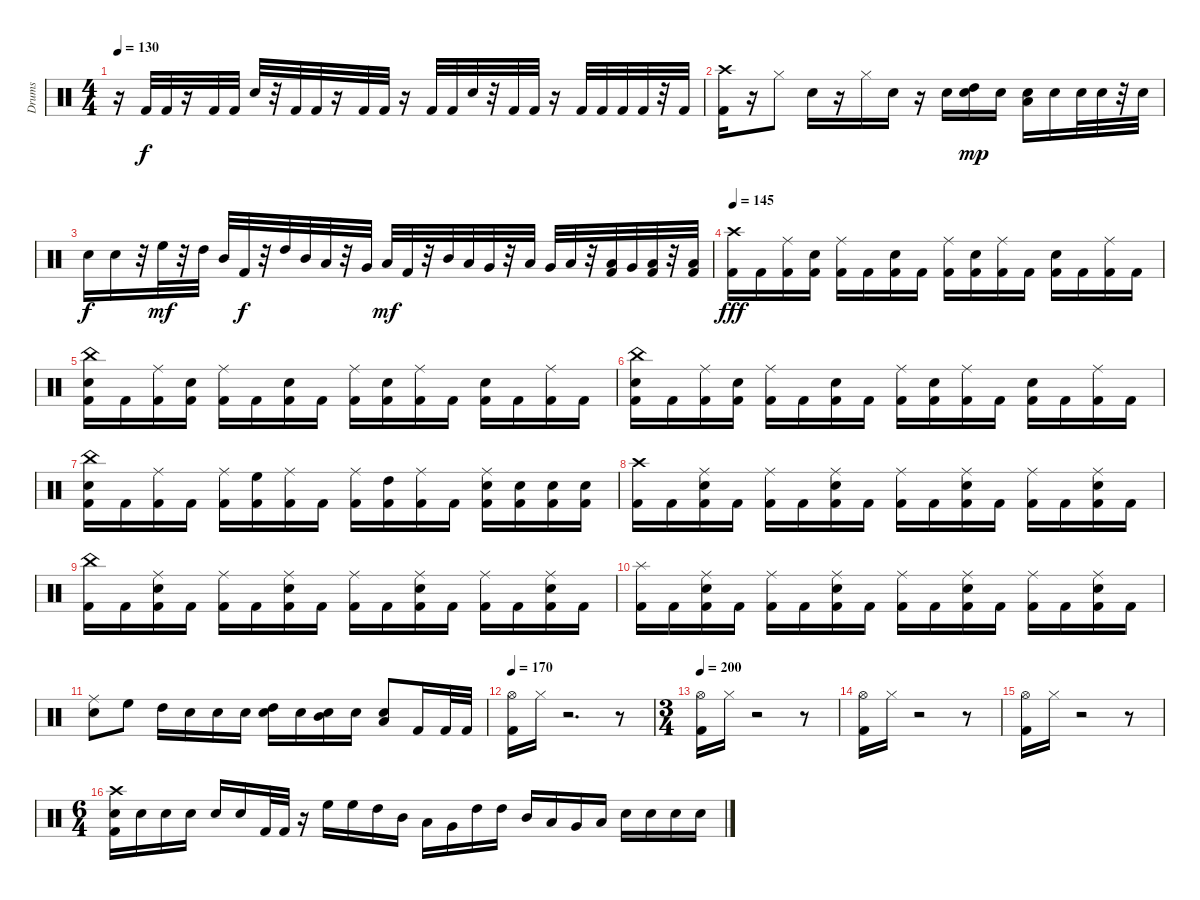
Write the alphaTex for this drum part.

\track ("Drums" "Drums") {instrument percussion}
\staff {score}
\articulation defaults
\ts (4 4)
\tempo 130
\clef neutral
\ks c
r.16{dy f} "Kick (hit) 2".32 "Kick (hit) 2".32 r.16 "Kick (hit) 2".32 "Kick (hit) 2".32 "Electric Snare (hit)".32 r.32 "Kick (hit) 2".32 "Kick (hit) 2".32 r.16 "Kick (hit) 2".32 "Kick (hit) 2".32 r.16 "Kick (hit) 2".32 "Kick (hit) 2".32 "Electric Snare (hit)".32 r.32 "Kick (hit) 2".32 "Kick (hit) 2".32 r.16 "Kick (hit) 2".32 "Kick (hit) 2".32 "Kick (hit) 2".32 "Kick (hit) 2".32 r.32 "Kick (hit) 2".32 |
("Crash high (hit)" "Kick (hit) 2").16 r.16 "Hi-Hat (closed)".8 "Electric Snare (hit)".16 r.16 "Hi-Hat (closed)".16 "Electric Snare (hit)".16 r.16 "Electric Snare (hit)".16 ("High Tom (hit)" "Electric Snare (hit)").16{dy mp} "Electric Snare (hit)".16 ("Low Tom (hit)" "Electric Snare (hit)").16 "Electric Snare (hit)".16 "Electric Snare (hit)".32 "Electric Snare (hit)".32 r.32 "Electric Snare (hit)".32 |
"Electric Snare (hit)".16{dy f} "Electric Snare (hit)".16 r.32 "High Floor Tom (hit)".32{dy mf} r.32 "High Tom (hit)".32 "Mid Tom (hit)".32 "Kick (hit) 2".32{dy f} r.32 "High Tom (hit)".32 "Mid Tom (hit)".32 "Low Tom (hit)".32 r.32 "Very Low Tom (hit)".32 "Low Floor Tom (hit)".32{dy mf} "Kick (hit) 2".32 r.32 "Mid Tom (hit)".32 "Low Tom (hit)".32 "Very Low Tom (hit)".32 r.32 "Low Floor Tom (hit)".32 "Very Low Tom (hit)".32 "Low Floor Tom (hit)".32 r.32 ("Kick (hit) 2" "Low Floor Tom (hit)").32 "Very Low Tom (hit)".32 ("Kick (hit) 2" "Low Floor Tom (hit)").32 r.32 ("Kick (hit) 2" "Low Floor Tom (hit)").32 |
\tempo 145
("Kick (hit) 2" "Crash high (hit)").16{dy fff} "Kick (hit) 2".16 ("Kick (hit) 2" "Ride (middle)").16 ("Kick (hit) 2" "Electric Snare (hit)").16 ("Kick (hit) 2" "Ride (middle)").16 "Kick (hit) 2".16 ("Kick (hit) 2" "Electric Snare (hit)").16 "Kick (hit) 2".16 ("Kick (hit) 2" "Ride (middle)").16 ("Kick (hit) 2" "Electric Snare (hit)").16 ("Kick (hit) 2" "Ride (middle)").16 "Kick (hit) 2".16 ("Kick (hit) 2" "Electric Snare (hit)").16 "Kick (hit) 2".16 ("Kick (hit) 2" "Ride (middle)").16 "Kick (hit) 2".16 |
("Kick (hit) 2" "Electric Snare (hit)" "China (hit)").16 "Kick (hit) 2".16 ("Kick (hit) 2" "Ride (middle)").16 ("Kick (hit) 2" "Electric Snare (hit)").16 ("Kick (hit) 2" "Ride (middle)").16 "Kick (hit) 2".16 ("Kick (hit) 2" "Electric Snare (hit)").16 "Kick (hit) 2".16 ("Kick (hit) 2" "Ride (middle)").16 ("Kick (hit) 2" "Electric Snare (hit)").16 ("Kick (hit) 2" "Ride (middle)").16 "Kick (hit) 2".16 ("Kick (hit) 2" "Electric Snare (hit)").16 "Kick (hit) 2".16 ("Kick (hit) 2" "Ride (middle)").16 "Kick (hit) 2".16 |
("Kick (hit) 2" "Electric Snare (hit)" "China (hit)").16 "Kick (hit) 2".16 ("Kick (hit) 2" "Ride (middle)").16 ("Kick (hit) 2" "Electric Snare (hit)").16 ("Kick (hit) 2" "Ride (middle)").16 "Kick (hit) 2".16 ("Kick (hit) 2" "Electric Snare (hit)").16 "Kick (hit) 2".16 ("Kick (hit) 2" "Ride (middle)").16 ("Kick (hit) 2" "Electric Snare (hit)").16 ("Kick (hit) 2" "Ride (middle)").16 "Kick (hit) 2".16 ("Kick (hit) 2" "Electric Snare (hit)").16 "Kick (hit) 2".16 ("Kick (hit) 2" "Ride (middle)").16 "Kick (hit) 2".16 |
("Electric Snare (hit)" "Kick (hit) 2" "China (hit)").16 "Kick (hit) 2".16 ("Kick (hit) 2" "Ride (middle)").16 "Kick (hit) 2".16 ("Kick (hit) 2" "Ride (middle)").16 ("Kick (hit) 2" "High Floor Tom (hit)").16 ("Kick (hit) 2" "Ride (middle)").16 "Kick (hit) 2".16 ("Kick (hit) 2" "Ride (middle)").16 ("Kick (hit) 2" "High Tom (hit)").16 ("Kick (hit) 2" "Ride (middle)").16 "Kick (hit) 2".16 ("Kick (hit) 2" "Electric Snare (hit)" "Ride (middle)").16 ("Kick (hit) 2" "Electric Snare (hit)").16 ("Kick (hit) 2" "Electric Snare (hit)").16 ("Kick (hit) 2" "Electric Snare (hit)").16 |
("Kick (hit) 2" "Crash high (hit)").16 "Kick (hit) 2".16 ("Electric Snare (hit)" "Kick (hit) 2" "Ride (middle)").16 "Kick (hit) 2".16 ("Kick (hit) 2" "Ride (middle)").16 "Kick (hit) 2".16 ("Electric Snare (hit)" "Kick (hit) 2" "Ride (middle)").16 "Kick (hit) 2".16 ("Kick (hit) 2" "Ride (middle)").16 "Kick (hit) 2".16 ("Electric Snare (hit)" "Kick (hit) 2" "Ride (middle)").16 "Kick (hit) 2".16 ("Kick (hit) 2" "Ride (middle)").16 "Kick (hit) 2".16 ("Electric Snare (hit)" "Kick (hit) 2" "Ride (middle)").16 "Kick (hit) 2".16 |
("Kick (hit) 2" "China (hit)").16 "Kick (hit) 2".16 ("Electric Snare (hit)" "Kick (hit) 2" "Ride (middle)").16 "Kick (hit) 2".16 ("Kick (hit) 2" "Ride (middle)").16 "Kick (hit) 2".16 ("Electric Snare (hit)" "Kick (hit) 2" "Ride (middle)").16 "Kick (hit) 2".16 ("Kick (hit) 2" "Ride (middle)").16 "Kick (hit) 2".16 ("Electric Snare (hit)" "Kick (hit) 2" "Ride (middle)").16 "Kick (hit) 2".16 ("Kick (hit) 2" "Ride (middle)").16 "Kick (hit) 2".16 ("Electric Snare (hit)" "Kick (hit) 2" "Ride (middle)").16 "Kick (hit) 2".16 |
("Kick (hit) 2" "Splash (hit)").16 "Kick (hit) 2".16 ("Electric Snare (hit)" "Kick (hit) 2" "Ride (middle)").16 "Kick (hit) 2".16 ("Kick (hit) 2" "Ride (middle)").16 "Kick (hit) 2".16 ("Electric Snare (hit)" "Kick (hit) 2" "Ride (middle)").16 "Kick (hit) 2".16 ("Kick (hit) 2" "Ride (middle)").16 "Kick (hit) 2".16 ("Electric Snare (hit)" "Kick (hit) 2" "Ride (middle)").16 "Kick (hit) 2".16 ("Kick (hit) 2" "Ride (middle)").16 "Kick (hit) 2".16 ("Kick (hit) 2" "Ride (middle)" "Electric Snare (hit)").16 "Kick (hit) 2".16 |
("Ride (middle)" "Electric Snare (hit)").8 "High Floor Tom (hit)".8 "High Tom (hit)".16 "Electric Snare (hit)".16 "Electric Snare (hit)".16 "Electric Snare (hit)".16 ("High Tom (hit)" "Electric Snare (hit)").16 "Electric Snare (hit)".16 ("Mid Tom (hit)" "Electric Snare (hit)").16 "Electric Snare (hit)".16 ("Low Tom (hit)" "Electric Snare (hit)").8 "Kick (hit) 2".16 "Kick (hit) 2".32 "Kick (hit) 2".32 |
\tempo 170
("Hi-Hat (open)" "Kick (hit) 2").16 "Hi-Hat (closed)".16 r.2{d} r.8 |
\ts (3 4)
\tempo 200
("Hi-Hat (open)" "Kick (hit) 2").16 "Hi-Hat (closed)".16 r.2 r.8 |
("Hi-Hat (open)" "Kick (hit) 2").16 "Hi-Hat (closed)".16 r.2 r.8 |
("Hi-Hat (open)" "Kick (hit) 2").16 "Hi-Hat (closed)".16 r.2 r.8 |
\ts (6 4)
("Crash high (hit)" "Kick (hit) 2" "Electric Snare (hit)").16 "Electric Snare (hit)".16 "Electric Snare (hit)".16 "Electric Snare (hit)".16 "Electric Snare (hit)".16 "Electric Snare (hit)".16 "Kick (hit) 2".32 "Kick (hit) 2".32 r.16 "High Floor Tom (hit)".16 "High Floor Tom (hit)".16 "High Tom (hit)".16 "Mid Tom (hit)".16 "Low Tom (hit)".16 "Very Low Tom (hit)".16 "High Tom (hit)".16 "High Tom (hit)".16 "Mid Tom (hit)".16 "Low Tom (hit)".16 "Very Low Tom (hit)".16 "Low Floor Tom (hit)".16 "Electric Snare (hit)".16 "Electric Snare (hit)".16 "Electric Snare (hit)".16 "Electric Snare (hit)".16
